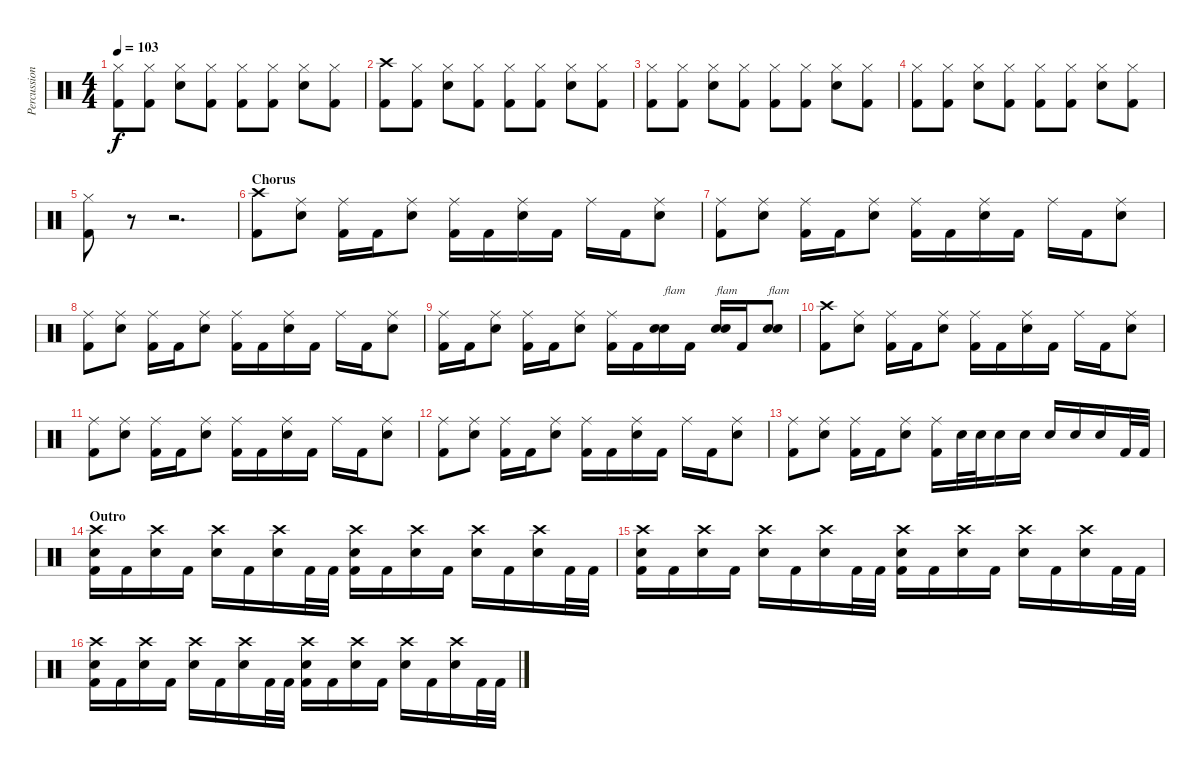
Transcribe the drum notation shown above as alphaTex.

\track ("Percussion - Brandon Barnes" "Percussion") {instrument percussion}
\staff {score}
\articulation defaults
\ts (4 4)
\tempo 103
\clef neutral
\ks c
("Hi-Hat (closed)" "Kick (hit) 2").8{dy f} ("Hi-Hat (closed)" "Kick (hit) 2").8 ("Hi-Hat (closed)" "Electric Snare (hit)").8 ("Hi-Hat (closed)" "Kick (hit) 2").8 ("Hi-Hat (closed)" "Kick (hit) 2").8 ("Hi-Hat (closed)" "Kick (hit) 2").8 ("Hi-Hat (closed)" "Electric Snare (hit)").8 ("Hi-Hat (closed)" "Kick (hit) 2").8 |
("Crash high (hit)" "Kick (hit) 2").8 ("Hi-Hat (closed)" "Kick (hit) 2").8 ("Hi-Hat (closed)" "Electric Snare (hit)").8 ("Hi-Hat (closed)" "Kick (hit) 2").8 ("Hi-Hat (closed)" "Kick (hit) 2").8 ("Hi-Hat (closed)" "Kick (hit) 2").8 ("Hi-Hat (closed)" "Electric Snare (hit)").8 ("Hi-Hat (closed)" "Kick (hit) 2").8 |
("Hi-Hat (closed)" "Kick (hit) 2").8 ("Hi-Hat (closed)" "Kick (hit) 2").8 ("Hi-Hat (closed)" "Electric Snare (hit)").8 ("Hi-Hat (closed)" "Kick (hit) 2").8 ("Hi-Hat (closed)" "Kick (hit) 2").8 ("Hi-Hat (closed)" "Kick (hit) 2").8 ("Hi-Hat (closed)" "Electric Snare (hit)").8 ("Hi-Hat (closed)" "Kick (hit) 2").8 |
("Hi-Hat (closed)" "Kick (hit) 2").8 ("Hi-Hat (closed)" "Kick (hit) 2").8 ("Hi-Hat (closed)" "Electric Snare (hit)").8 ("Hi-Hat (closed)" "Kick (hit) 2").8 ("Hi-Hat (closed)" "Kick (hit) 2").8 ("Hi-Hat (closed)" "Kick (hit) 2").8 ("Hi-Hat (closed)" "Electric Snare (hit)").8 ("Hi-Hat (closed)" "Kick (hit) 2").8 |
("Hi-Hat (closed)" "Kick (hit) 2").8 r.8 r.2{d} |
\section ("" "Chorus")
("Crash high (hit)" "Kick (hit) 2").8 ("Ride (middle)" "Electric Snare (hit)").8 ("Ride (middle)" "Kick (hit) 2").16 "Kick (hit) 2".16 ("Ride (middle)" "Electric Snare (hit)").8 ("Ride (middle)" "Kick (hit) 2").16 "Kick (hit) 2".16 ("Ride (middle)" "Electric Snare (hit)").16 "Kick (hit) 2".16 "Ride (middle)".16 "Kick (hit) 2".16 ("Ride (middle)" "Electric Snare (hit)").8 |
("Ride (middle)" "Kick (hit) 2").8 ("Ride (middle)" "Electric Snare (hit)").8 ("Ride (middle)" "Kick (hit) 2").16 "Kick (hit) 2".16 ("Ride (middle)" "Electric Snare (hit)").8 ("Ride (middle)" "Kick (hit) 2").16 "Kick (hit) 2".16 ("Ride (middle)" "Electric Snare (hit)").16 "Kick (hit) 2".16 "Ride (middle)".16 "Kick (hit) 2".16 ("Ride (middle)" "Electric Snare (hit)").8 |
("Ride (middle)" "Kick (hit) 2").8 ("Ride (middle)" "Electric Snare (hit)").8 ("Ride (middle)" "Kick (hit) 2").16 "Kick (hit) 2".16 ("Ride (middle)" "Electric Snare (hit)").8 ("Ride (middle)" "Kick (hit) 2").16 "Kick (hit) 2".16 ("Ride (middle)" "Electric Snare (hit)").16 "Kick (hit) 2".16 "Ride (middle)".16 "Kick (hit) 2".16 ("Ride (middle)" "Electric Snare (hit)").8 |
("Ride (middle)" "Kick (hit) 2").16 "Kick (hit) 2".16 ("Ride (middle)" "Electric Snare (hit)").8 ("Ride (middle)" "Kick (hit) 2").16 "Kick (hit) 2".16 ("Ride (middle)" "Electric Snare (hit)").8 ("Ride (middle)" "Kick (hit) 2").16 "Kick (hit) 2".16 ("Electric Snare (hit)" "Electric Snare (hit)").16{bd 30 txt "flam"} "Kick (hit) 2".16 ("Electric Snare (hit)" "Electric Snare (hit)").16{bd 30 txt "flam"} "Kick (hit) 2".16 ("Electric Snare (hit)" "Electric Snare (hit)").8{bd 30 txt "flam"} |
("Crash high (hit)" "Kick (hit) 2").8 ("Ride (middle)" "Electric Snare (hit)").8 ("Ride (middle)" "Kick (hit) 2").16 "Kick (hit) 2".16 ("Ride (middle)" "Electric Snare (hit)").8 ("Ride (middle)" "Kick (hit) 2").16 "Kick (hit) 2".16 ("Ride (middle)" "Electric Snare (hit)").16 "Kick (hit) 2".16 "Ride (middle)".16 "Kick (hit) 2".16 ("Ride (middle)" "Electric Snare (hit)").8 |
("Ride (middle)" "Kick (hit) 2").8 ("Ride (middle)" "Electric Snare (hit)").8 ("Ride (middle)" "Kick (hit) 2").16 "Kick (hit) 2".16 ("Ride (middle)" "Electric Snare (hit)").8 ("Ride (middle)" "Kick (hit) 2").16 "Kick (hit) 2".16 ("Ride (middle)" "Electric Snare (hit)").16 "Kick (hit) 2".16 "Ride (middle)".16 "Kick (hit) 2".16 ("Ride (middle)" "Electric Snare (hit)").8 |
("Ride (middle)" "Kick (hit) 2").8 ("Ride (middle)" "Electric Snare (hit)").8 ("Ride (middle)" "Kick (hit) 2").16 "Kick (hit) 2".16 ("Ride (middle)" "Electric Snare (hit)").8 ("Ride (middle)" "Kick (hit) 2").16 "Kick (hit) 2".16 ("Ride (middle)" "Electric Snare (hit)").16 "Kick (hit) 2".16 "Ride (middle)".16 "Kick (hit) 2".16 ("Ride (middle)" "Electric Snare (hit)").8 |
("Ride (middle)" "Kick (hit) 2").8 ("Ride (middle)" "Electric Snare (hit)").8 ("Ride (middle)" "Kick (hit) 2").16 "Kick (hit) 2".16 ("Ride (middle)" "Electric Snare (hit)").8 ("Ride (middle)" "Kick (hit) 2").16 "Electric Snare (hit)".32 "Electric Snare (hit)".32 "Electric Snare (hit)".16 "Electric Snare (hit)".16 "Electric Snare (hit)".16 "Electric Snare (hit)".16 "Electric Snare (hit)".16 "Kick (hit) 2".32 "Kick (hit) 2".32 |
\section ("" "Outro")
("Crash high (hit)" "Electric Snare (hit)" "Kick (hit) 2").16 "Kick (hit) 2".16 ("Crash high (hit)" "Electric Snare (hit)").16 "Kick (hit) 2".16 ("Crash high (hit)" "Electric Snare (hit)").16 "Kick (hit) 2".16 ("Crash high (hit)" "Electric Snare (hit)").16 "Kick (hit) 2".32 "Kick (hit) 2".32 ("Crash high (hit)" "Electric Snare (hit)" "Kick (hit) 2").16 "Kick (hit) 2".16 ("Crash high (hit)" "Electric Snare (hit)").16 "Kick (hit) 2".16 ("Crash high (hit)" "Electric Snare (hit)").16 "Kick (hit) 2".16 ("Crash high (hit)" "Electric Snare (hit)").16 "Kick (hit) 2".32 "Kick (hit) 2".32 |
("Crash high (hit)" "Electric Snare (hit)" "Kick (hit) 2").16 "Kick (hit) 2".16 ("Crash high (hit)" "Electric Snare (hit)").16 "Kick (hit) 2".16 ("Crash high (hit)" "Electric Snare (hit)").16 "Kick (hit) 2".16 ("Crash high (hit)" "Electric Snare (hit)").16 "Kick (hit) 2".32 "Kick (hit) 2".32 ("Crash high (hit)" "Electric Snare (hit)" "Kick (hit) 2").16 "Kick (hit) 2".16 ("Crash high (hit)" "Electric Snare (hit)").16 "Kick (hit) 2".16 ("Crash high (hit)" "Electric Snare (hit)").16 "Kick (hit) 2".16 ("Crash high (hit)" "Electric Snare (hit)").16 "Kick (hit) 2".32 "Kick (hit) 2".32 |
("Crash high (hit)" "Electric Snare (hit)" "Kick (hit) 2").16 "Kick (hit) 2".16 ("Crash high (hit)" "Electric Snare (hit)").16 "Kick (hit) 2".16 ("Crash high (hit)" "Electric Snare (hit)").16 "Kick (hit) 2".16 ("Crash high (hit)" "Electric Snare (hit)").16 "Kick (hit) 2".32 "Kick (hit) 2".32 ("Crash high (hit)" "Electric Snare (hit)" "Kick (hit) 2").16 "Kick (hit) 2".16 ("Crash high (hit)" "Electric Snare (hit)").16 "Kick (hit) 2".16 ("Crash high (hit)" "Electric Snare (hit)").16 "Kick (hit) 2".16 ("Crash high (hit)" "Electric Snare (hit)").16 "Kick (hit) 2".32 "Kick (hit) 2".32
